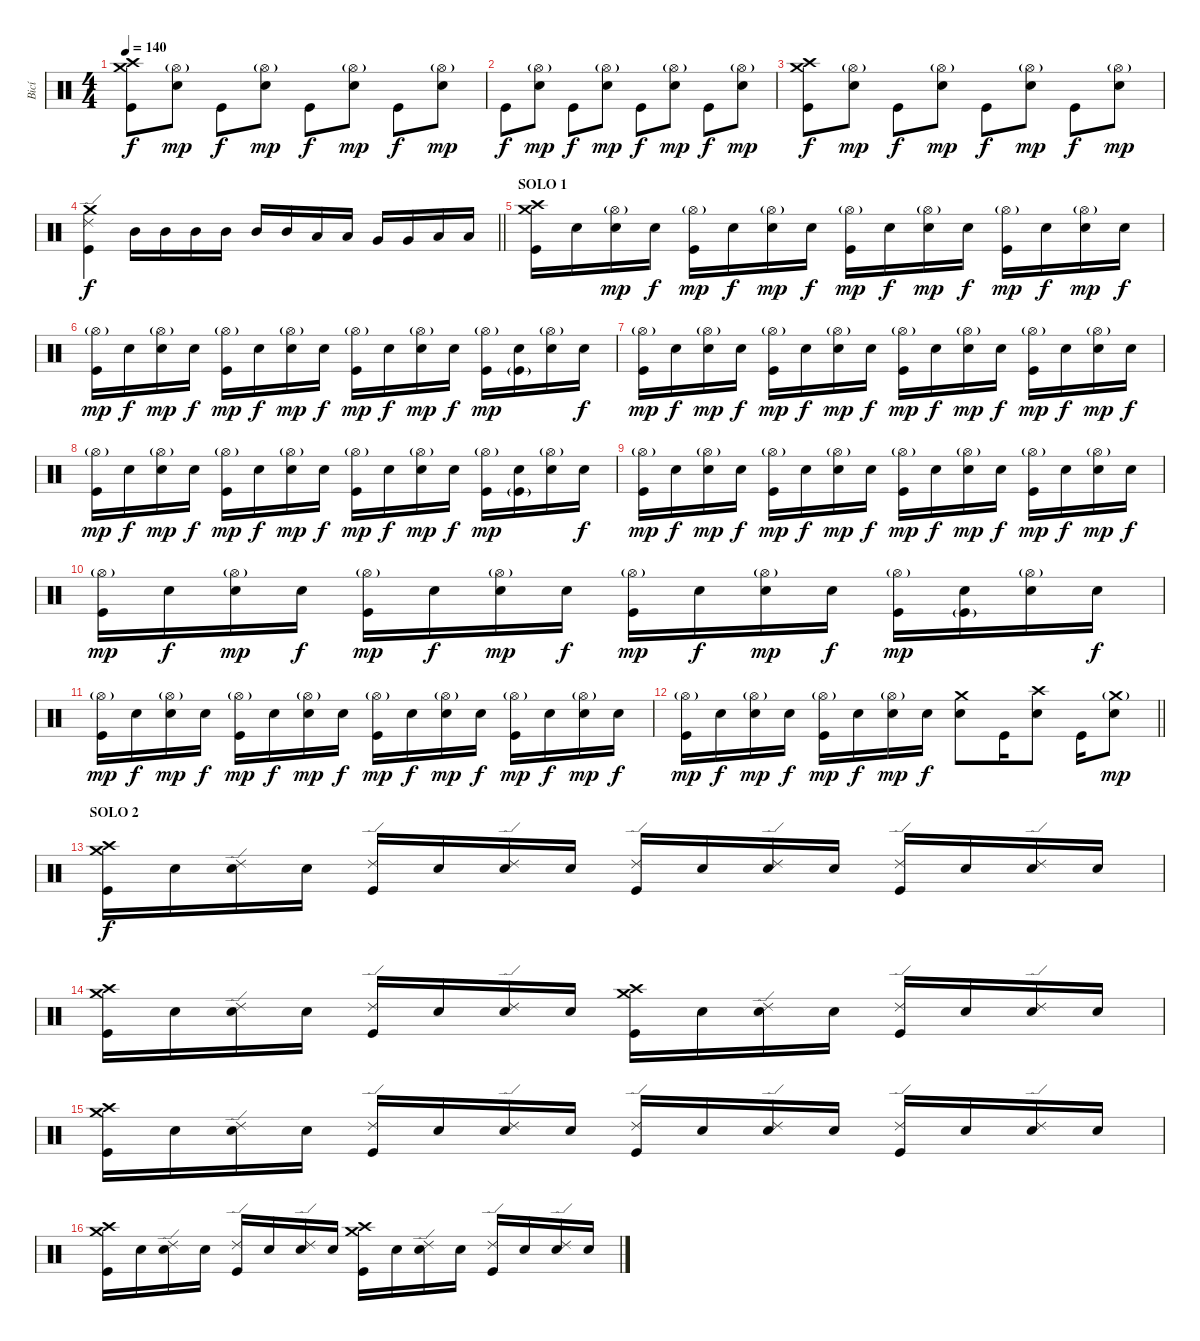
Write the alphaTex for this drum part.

\track ("Bicí" "Bicí") {instrument percussion}
\staff {score}
\articulation defaults
\ts (4 4)
\tempo 140
\clef neutral
\ks c
("Crash high (hit)" "Crash medium (hit)" "Kick (hit)").8{dy f} ("Hi-Hat (open)"{g} "Electric Snare (hit)").8{dy mp} "Kick (hit)".8{dy f} ("Hi-Hat (open)"{g} "Electric Snare (hit)").8{dy mp} "Kick (hit)".8{dy f} ("Hi-Hat (open)"{g} "Electric Snare (hit)").8{dy mp} "Kick (hit)".8{dy f} ("Hi-Hat (open)"{g} "Electric Snare (hit)").8{dy mp} |
"Kick (hit)".8{dy f} ("Hi-Hat (open)"{g} "Electric Snare (hit)").8{dy mp} "Kick (hit)".8{dy f} ("Hi-Hat (open)"{g} "Electric Snare (hit)").8{dy mp} "Kick (hit)".8{dy f} ("Hi-Hat (open)"{g} "Electric Snare (hit)").8{dy mp} "Kick (hit)".8{dy f} ("Hi-Hat (open)"{g} "Electric Snare (hit)").8{dy mp} |
("Crash medium (hit)" "Crash high (hit)" "Kick (hit)").8{dy f} ("Hi-Hat (open)"{g} "Electric Snare (hit)").8{dy mp} "Kick (hit)".8{dy f} ("Hi-Hat (open)"{g} "Electric Snare (hit)").8{dy mp} "Kick (hit)".8{dy f} ("Hi-Hat (open)"{g} "Electric Snare (hit)").8{dy mp} "Kick (hit)".8{dy f} ("Hi-Hat (open)"{g} "Electric Snare (hit)").8{dy mp} |
\barLineRight lightlight
("Crash medium (hit)" "Ride (edge) 2" "Kick (hit)").4{dy f} "Mid Tom (hit)".16 "Mid Tom (hit)".16 "Mid Tom (hit)".16 "Mid Tom (hit)".16 "Mid Tom (hit)".16 "Mid Tom (hit)".16 "Low Tom (hit)".16 "Low Tom (hit)".16 "Very Low Tom (hit)".16 "Very Low Tom (hit)".16 "Low Floor Tom (hit)".16 "Low Floor Tom (hit)".16 |
\section ("" "SOLO 1")
("Crash high (hit)" "Crash medium (hit)" "Kick (hit)").16 "Snare (hit)".16 ("Hi-Hat (open)"{g} "Electric Snare (hit)").16{dy mp} "Snare (hit)".16{dy f} ("Hi-Hat (open)"{g} "Kick (hit)").16{dy mp} "Snare (hit)".16{dy f} ("Hi-Hat (open)"{g} "Electric Snare (hit)").16{dy mp} "Snare (hit)".16{dy f} ("Hi-Hat (open)"{g} "Kick (hit)").16{dy mp} "Snare (hit)".16{dy f} ("Hi-Hat (open)"{g} "Electric Snare (hit)").16{dy mp} "Snare (hit)".16{dy f} ("Hi-Hat (open)"{g} "Kick (hit)").16{dy mp} "Snare (hit)".16{dy f} ("Hi-Hat (open)"{g} "Electric Snare (hit)").16{dy mp} "Snare (hit)".16{dy f} |
("Hi-Hat (open)"{g} "Kick (hit)").16{dy mp} "Snare (hit)".16{dy f} ("Hi-Hat (open)"{g} "Electric Snare (hit)").16{dy mp} "Snare (hit)".16{dy f} ("Hi-Hat (open)"{g} "Kick (hit)").16{dy mp} "Snare (hit)".16{dy f} ("Hi-Hat (open)"{g} "Electric Snare (hit)").16{dy mp} "Snare (hit)".16{dy f} ("Hi-Hat (open)"{g} "Kick (hit)").16{dy mp} "Snare (hit)".16{dy f} ("Hi-Hat (open)"{g} "Electric Snare (hit)").16{dy mp} "Snare (hit)".16{dy f} ("Hi-Hat (open)"{g} "Kick (hit)").16{dy mp} ("Snare (hit)" "Kick (hit)"{g}).16 ("Hi-Hat (open)"{g} "Electric Snare (hit)").16 "Snare (hit)".16{dy f} |
("Hi-Hat (open)"{g} "Kick (hit)").16{dy mp} "Snare (hit)".16{dy f} ("Hi-Hat (open)"{g} "Electric Snare (hit)").16{dy mp} "Snare (hit)".16{dy f} ("Hi-Hat (open)"{g} "Kick (hit)").16{dy mp} "Snare (hit)".16{dy f} ("Hi-Hat (open)"{g} "Electric Snare (hit)").16{dy mp} "Snare (hit)".16{dy f} ("Hi-Hat (open)"{g} "Kick (hit)").16{dy mp} "Snare (hit)".16{dy f} ("Hi-Hat (open)"{g} "Electric Snare (hit)").16{dy mp} "Snare (hit)".16{dy f} ("Hi-Hat (open)"{g} "Kick (hit)").16{dy mp} "Snare (hit)".16{dy f} ("Hi-Hat (open)"{g} "Electric Snare (hit)").16{dy mp} "Snare (hit)".16{dy f} |
("Hi-Hat (open)"{g} "Kick (hit)").16{dy mp} "Snare (hit)".16{dy f} ("Hi-Hat (open)"{g} "Electric Snare (hit)").16{dy mp} "Snare (hit)".16{dy f} ("Hi-Hat (open)"{g} "Kick (hit)").16{dy mp} "Snare (hit)".16{dy f} ("Hi-Hat (open)"{g} "Electric Snare (hit)").16{dy mp} "Snare (hit)".16{dy f} ("Hi-Hat (open)"{g} "Kick (hit)").16{dy mp} "Snare (hit)".16{dy f} ("Hi-Hat (open)"{g} "Electric Snare (hit)").16{dy mp} "Snare (hit)".16{dy f} ("Hi-Hat (open)"{g} "Kick (hit)").16{dy mp} ("Snare (hit)" "Kick (hit)"{g}).16 ("Hi-Hat (open)"{g} "Electric Snare (hit)").16 "Snare (hit)".16{dy f} |
("Hi-Hat (open)"{g} "Kick (hit)").16{dy mp} "Snare (hit)".16{dy f} ("Hi-Hat (open)"{g} "Electric Snare (hit)").16{dy mp} "Snare (hit)".16{dy f} ("Hi-Hat (open)"{g} "Kick (hit)").16{dy mp} "Snare (hit)".16{dy f} ("Hi-Hat (open)"{g} "Electric Snare (hit)").16{dy mp} "Snare (hit)".16{dy f} ("Hi-Hat (open)"{g} "Kick (hit)").16{dy mp} "Snare (hit)".16{dy f} ("Hi-Hat (open)"{g} "Electric Snare (hit)").16{dy mp} "Snare (hit)".16{dy f} ("Hi-Hat (open)"{g} "Kick (hit)").16{dy mp} "Snare (hit)".16{dy f} ("Hi-Hat (open)"{g} "Electric Snare (hit)").16{dy mp} "Snare (hit)".16{dy f} |
("Hi-Hat (open)"{g} "Kick (hit)").16{dy mp} "Snare (hit)".16{dy f} ("Hi-Hat (open)"{g} "Electric Snare (hit)").16{dy mp} "Snare (hit)".16{dy f} ("Hi-Hat (open)"{g} "Kick (hit)").16{dy mp} "Snare (hit)".16{dy f} ("Hi-Hat (open)"{g} "Electric Snare (hit)").16{dy mp} "Snare (hit)".16{dy f} ("Hi-Hat (open)"{g} "Kick (hit)").16{dy mp} "Snare (hit)".16{dy f} ("Hi-Hat (open)"{g} "Electric Snare (hit)").16{dy mp} "Snare (hit)".16{dy f} ("Hi-Hat (open)"{g} "Kick (hit)").16{dy mp} ("Snare (hit)" "Kick (hit)"{g}).16 ("Hi-Hat (open)"{g} "Electric Snare (hit)").16 "Snare (hit)".16{dy f} |
("Hi-Hat (open)"{g} "Kick (hit)").16{dy mp} "Snare (hit)".16{dy f} ("Hi-Hat (open)"{g} "Electric Snare (hit)").16{dy mp} "Snare (hit)".16{dy f} ("Hi-Hat (open)"{g} "Kick (hit)").16{dy mp} "Snare (hit)".16{dy f} ("Hi-Hat (open)"{g} "Electric Snare (hit)").16{dy mp} "Snare (hit)".16{dy f} ("Hi-Hat (open)"{g} "Kick (hit)").16{dy mp} "Snare (hit)".16{dy f} ("Hi-Hat (open)"{g} "Electric Snare (hit)").16{dy mp} "Snare (hit)".16{dy f} ("Hi-Hat (open)"{g} "Kick (hit)").16{dy mp} "Snare (hit)".16{dy f} ("Hi-Hat (open)"{g} "Electric Snare (hit)").16{dy mp} "Snare (hit)".16{dy f} |
\barLineRight lightlight
("Hi-Hat (open)"{g} "Kick (hit)").16{dy mp} "Snare (hit)".16{dy f} ("Hi-Hat (open)"{g} "Electric Snare (hit)").16{dy mp} "Snare (hit)".16{dy f} ("Hi-Hat (open)"{g} "Kick (hit)").16{dy mp} "Snare (hit)".16{dy f} ("Hi-Hat (open)"{g} "Electric Snare (hit)").16{dy mp} "Snare (hit)".16{dy f} ("Crash medium (hit)" "Electric Snare (hit)").8 "Kick (hit)".16 ("Crash high (hit)" "Electric Snare (hit)").8 "Kick (hit)".16 ("Crash medium (hit)"{g} "Electric Snare (hit)").8{dy mp} |
\section ("" "SOLO 2")
("Crash high (hit)" "Crash medium (hit)" "Kick (hit)").16{dy f} "Snare (hit)".16 ("Ride (edge) 2" "Electric Snare (hit)").16 "Snare (hit)".16 ("Ride (edge) 2" "Kick (hit)").16 "Snare (hit)".16 ("Ride (edge) 2" "Electric Snare (hit)").16 "Snare (hit)".16 ("Ride (edge) 2" "Kick (hit)").16 "Snare (hit)".16 ("Ride (edge) 2" "Electric Snare (hit)").16 "Snare (hit)".16 ("Ride (edge) 2" "Kick (hit)").16 "Snare (hit)".16 ("Ride (edge) 2" "Electric Snare (hit)").16 "Snare (hit)".16 |
("Crash high (hit)" "Crash medium (hit)" "Kick (hit)").16 "Snare (hit)".16 ("Ride (edge) 2" "Electric Snare (hit)").16 "Snare (hit)".16 ("Ride (edge) 2" "Kick (hit)").16 "Snare (hit)".16 ("Ride (edge) 2" "Electric Snare (hit)").16 "Snare (hit)".16 ("Crash high (hit)" "Crash medium (hit)" "Kick (hit)").16 "Snare (hit)".16 ("Ride (edge) 2" "Electric Snare (hit)").16 "Snare (hit)".16 ("Ride (edge) 2" "Kick (hit)").16 "Snare (hit)".16 ("Ride (edge) 2" "Electric Snare (hit)").16 "Snare (hit)".16 |
("Crash high (hit)" "Crash medium (hit)" "Kick (hit)").16 "Snare (hit)".16 ("Ride (edge) 2" "Electric Snare (hit)").16 "Snare (hit)".16 ("Ride (edge) 2" "Kick (hit)").16 "Snare (hit)".16 ("Ride (edge) 2" "Electric Snare (hit)").16 "Snare (hit)".16 ("Ride (edge) 2" "Kick (hit)").16 "Snare (hit)".16 ("Ride (edge) 2" "Electric Snare (hit)").16 "Snare (hit)".16 ("Ride (edge) 2" "Kick (hit)").16 "Snare (hit)".16 ("Ride (edge) 2" "Electric Snare (hit)").16 "Snare (hit)".16 |
("Crash high (hit)" "Crash medium (hit)" "Kick (hit)").16 "Snare (hit)".16 ("Ride (edge) 2" "Electric Snare (hit)").16 "Snare (hit)".16 ("Ride (edge) 2" "Kick (hit)").16 "Snare (hit)".16 ("Ride (edge) 2" "Electric Snare (hit)").16 "Snare (hit)".16 ("Crash high (hit)" "Crash medium (hit)" "Kick (hit)").16 "Snare (hit)".16 ("Ride (edge) 2" "Electric Snare (hit)").16 "Snare (hit)".16 ("Ride (edge) 2" "Kick (hit)").16 "Snare (hit)".16 ("Ride (edge) 2" "Electric Snare (hit)").16 "Snare (hit)".16
